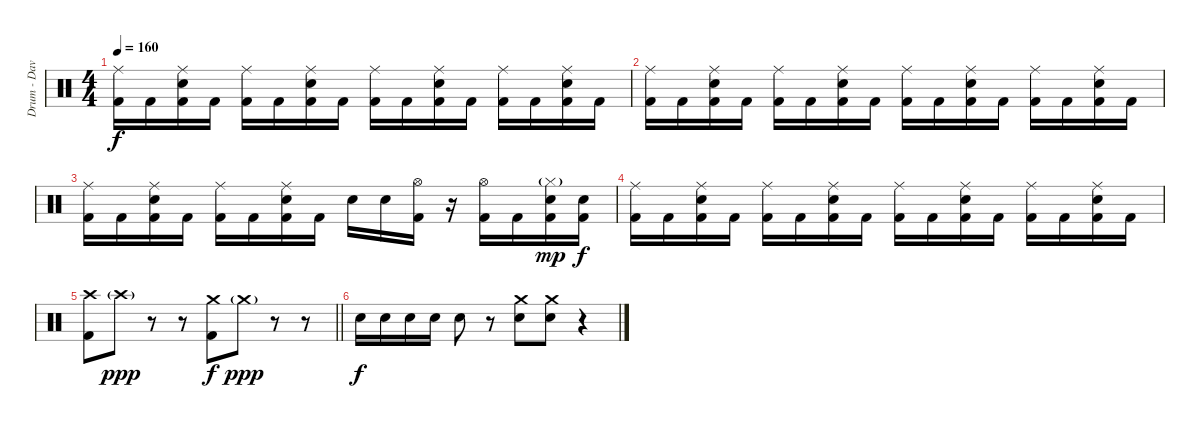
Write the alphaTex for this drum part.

\track ("Drum - Dave Mackintosh" "Drum - Dav") {instrument percussion}
\staff {score}
\articulation defaults
\ts (4 4)
\tempo 160
\clef neutral
\ks c
("Ride (middle)" "Kick (hit) 2").16{dy f} "Kick (hit) 2".16 ("Ride (middle)" "Electric Snare (hit)" "Kick (hit) 2").16 "Kick (hit) 2".16 ("Ride (middle)" "Kick (hit) 2").16 "Kick (hit) 2".16 ("Ride (middle)" "Electric Snare (hit)" "Kick (hit) 2").16 "Kick (hit) 2".16 ("Ride (middle)" "Kick (hit) 2").16 "Kick (hit) 2".16 ("Ride (middle)" "Electric Snare (hit)" "Kick (hit) 2").16 "Kick (hit) 2".16 ("Ride (middle)" "Kick (hit) 2").16 "Kick (hit) 2".16 ("Ride (middle)" "Electric Snare (hit)" "Kick (hit) 2").16 "Kick (hit) 2".16 |
("Ride (middle)" "Kick (hit) 2").16 "Kick (hit) 2".16 ("Ride (middle)" "Electric Snare (hit)" "Kick (hit) 2").16 "Kick (hit) 2".16 ("Ride (middle)" "Kick (hit) 2").16 "Kick (hit) 2".16 ("Ride (middle)" "Electric Snare (hit)" "Kick (hit) 2").16 "Kick (hit) 2".16 ("Ride (middle)" "Kick (hit) 2").16 "Kick (hit) 2".16 ("Ride (middle)" "Electric Snare (hit)" "Kick (hit) 2").16 "Kick (hit) 2".16 ("Ride (middle)" "Kick (hit) 2").16 "Kick (hit) 2".16 ("Ride (middle)" "Electric Snare (hit)" "Kick (hit) 2").16 "Kick (hit) 2".16 |
("Ride (middle)" "Kick (hit) 2").16 "Kick (hit) 2".16 ("Ride (middle)" "Electric Snare (hit)" "Kick (hit) 2").16 "Kick (hit) 2".16 ("Ride (middle)" "Kick (hit) 2").16 "Kick (hit) 2".16 ("Ride (middle)" "Electric Snare (hit)" "Kick (hit) 2").16 "Kick (hit) 2".16 "Electric Snare (hit)".16 "Electric Snare (hit)".16 ("Hi-Hat (open)" "Kick (hit) 2").16 r.16 ("Hi-Hat (open)" "Kick (hit) 2").16 "Kick (hit) 2".16 ("Hi-Hat (closed)"{g} "Electric Snare (hit)" "Kick (hit) 2").16{dy mp} ("Electric Snare (hit)" "Kick (hit) 2").16{dy f} |
("Ride (middle)" "Kick (hit) 2").16 "Kick (hit) 2".16 ("Ride (middle)" "Electric Snare (hit)" "Kick (hit) 2").16 "Kick (hit) 2".16 ("Ride (middle)" "Kick (hit) 2").16 "Kick (hit) 2".16 ("Ride (middle)" "Electric Snare (hit)" "Kick (hit) 2").16 "Kick (hit) 2".16 ("Ride (middle)" "Kick (hit) 2").16 "Kick (hit) 2".16 ("Ride (middle)" "Electric Snare (hit)" "Kick (hit) 2").16 "Kick (hit) 2".16 ("Ride (middle)" "Kick (hit) 2").16 "Kick (hit) 2".16 ("Ride (middle)" "Electric Snare (hit)" "Kick (hit) 2").16 "Kick (hit) 2".16 |
\barLineRight lightlight
("Crash high (hit)" "Kick (hit) 2").8 "Crash high (hit)"{g}.8{dy ppp} r.8 r.8 ("Crash medium (hit)" "Kick (hit) 2").8{dy f} "Crash medium (hit)"{g}.8{dy ppp} r.8 r.8 |
"Electric Snare (hit)".16{dy f} "Electric Snare (hit)".16 "Electric Snare (hit)".16 "Electric Snare (hit)".16 "Electric Snare (hit)".8 r.8 ("Crash medium (hit)" "Electric Snare (hit)").8 ("Crash medium (hit)" "Electric Snare (hit)").8 r.4
